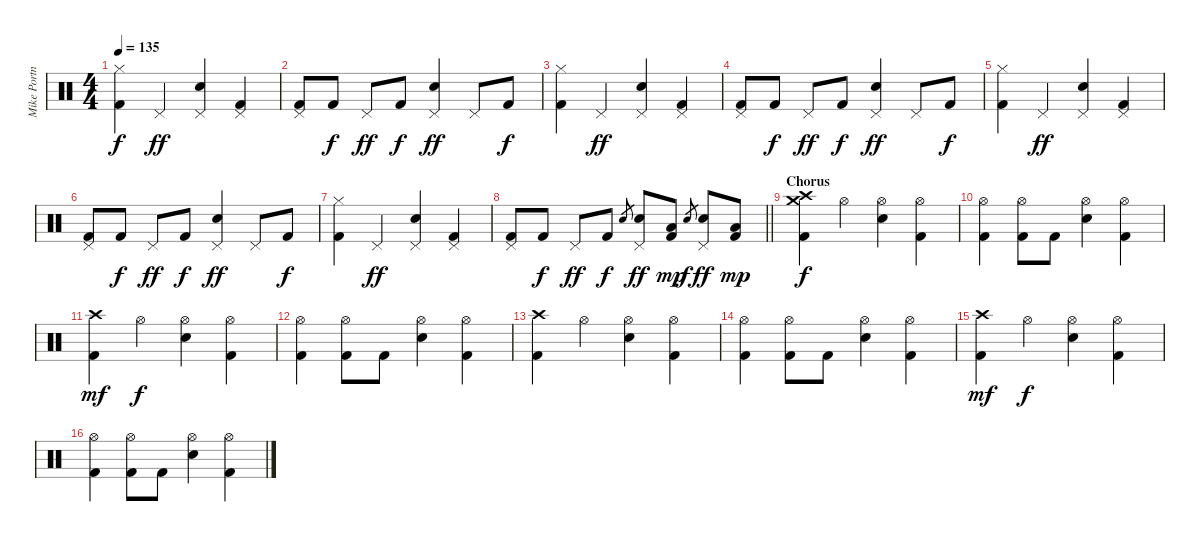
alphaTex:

\track ("Mike Portnoy" "Mike Portn") {instrument percussion}
\staff {score}
\articulation defaults
\ts (4 4)
\tempo 135
\clef neutral
\ks c
("Hi-Hat (closed)" "Kick (hit) 2").4{dy f} "Pedal Hi-Hat (hit)".4{dy ff} ("Pedal Hi-Hat (hit)" "Electric Snare (hit)").4 ("Pedal Hi-Hat (hit)" "Kick (hit) 2").4 |
("Pedal Hi-Hat (hit)" "Kick (hit) 2").8 "Kick (hit) 2".8{dy f} "Pedal Hi-Hat (hit)".8{dy ff} "Kick (hit) 2".8{dy f} ("Pedal Hi-Hat (hit)" "Electric Snare (hit)").4{dy ff} "Pedal Hi-Hat (hit)".8 "Kick (hit) 2".8{dy f} |
("Hi-Hat (closed)" "Kick (hit) 2").4 "Pedal Hi-Hat (hit)".4{dy ff} ("Pedal Hi-Hat (hit)" "Electric Snare (hit)").4 ("Pedal Hi-Hat (hit)" "Kick (hit) 2").4 |
("Pedal Hi-Hat (hit)" "Kick (hit) 2").8 "Kick (hit) 2".8{dy f} "Pedal Hi-Hat (hit)".8{dy ff} "Kick (hit) 2".8{dy f} ("Pedal Hi-Hat (hit)" "Electric Snare (hit)").4{dy ff} "Pedal Hi-Hat (hit)".8 "Kick (hit) 2".8{dy f} |
("Hi-Hat (closed)" "Kick (hit) 2").4 "Pedal Hi-Hat (hit)".4{dy ff} ("Pedal Hi-Hat (hit)" "Electric Snare (hit)").4 ("Pedal Hi-Hat (hit)" "Kick (hit) 2").4 |
("Pedal Hi-Hat (hit)" "Kick (hit) 2").8 "Kick (hit) 2".8{dy f} "Pedal Hi-Hat (hit)".8{dy ff} "Kick (hit) 2".8{dy f} ("Pedal Hi-Hat (hit)" "Electric Snare (hit)").4{dy ff} "Pedal Hi-Hat (hit)".8 "Kick (hit) 2".8{dy f} |
("Hi-Hat (closed)" "Kick (hit) 2").4 "Pedal Hi-Hat (hit)".4{dy ff} ("Pedal Hi-Hat (hit)" "Electric Snare (hit)").4 ("Pedal Hi-Hat (hit)" "Kick (hit) 2").4 |
\barLineRight lightlight
("Pedal Hi-Hat (hit)" "Kick (hit) 2").8 "Kick (hit) 2".8{dy f} "Pedal Hi-Hat (hit)".8{dy ff} "Kick (hit) 2".8{dy f} "Electric Snare (hit)".8{gr} ("Pedal Hi-Hat (hit)" "Electric Snare (hit)").8{dy ff} ("Low Floor Tom (hit)" "Kick (hit) 2").8{dy mp} "Electric Snare (hit)".8{gr dy f} ("Pedal Hi-Hat (hit)" "Electric Snare (hit)").8{dy ff} ("Low Floor Tom (hit)" "Kick (hit) 2").8{dy mp} |
\section ("" "Chorus")
("Crash medium (hit)" "Crash high (hit)" "Kick (hit) 2").4{dy f} "Hi-Hat (open)".4 ("Hi-Hat (open)" "Electric Snare (hit)").4 ("Hi-Hat (open)" "Kick (hit) 2").4 |
("Hi-Hat (open)" "Kick (hit) 2").4 ("Hi-Hat (open)" "Kick (hit) 2").8 "Kick (hit) 2".8 ("Hi-Hat (open)" "Electric Snare (hit)").4 ("Hi-Hat (open)" "Kick (hit) 2").4 |
("Crash high (hit)" "Kick (hit) 2").4{dy mf} "Hi-Hat (open)".4{dy f} ("Hi-Hat (open)" "Electric Snare (hit)").4 ("Hi-Hat (open)" "Kick (hit) 2").4 |
("Hi-Hat (open)" "Kick (hit) 2").4 ("Hi-Hat (open)" "Kick (hit) 2").8 "Kick (hit) 2".8 ("Hi-Hat (open)" "Electric Snare (hit)").4 ("Hi-Hat (open)" "Kick (hit) 2").4 |
("Crash high (hit)" "Kick (hit) 2").4 "Hi-Hat (open)".4 ("Hi-Hat (open)" "Electric Snare (hit)").4 ("Hi-Hat (open)" "Kick (hit) 2").4 |
("Hi-Hat (open)" "Kick (hit) 2").4 ("Hi-Hat (open)" "Kick (hit) 2").8 "Kick (hit) 2".8 ("Hi-Hat (open)" "Electric Snare (hit)").4 ("Hi-Hat (open)" "Kick (hit) 2").4 |
("Crash high (hit)" "Kick (hit) 2").4{dy mf} "Hi-Hat (open)".4{dy f} ("Hi-Hat (open)" "Electric Snare (hit)").4 ("Hi-Hat (open)" "Kick (hit) 2").4 |
("Hi-Hat (open)" "Kick (hit) 2").4 ("Hi-Hat (open)" "Kick (hit) 2").8 "Kick (hit) 2".8 ("Hi-Hat (open)" "Electric Snare (hit)").4 ("Hi-Hat (open)" "Kick (hit) 2").4
